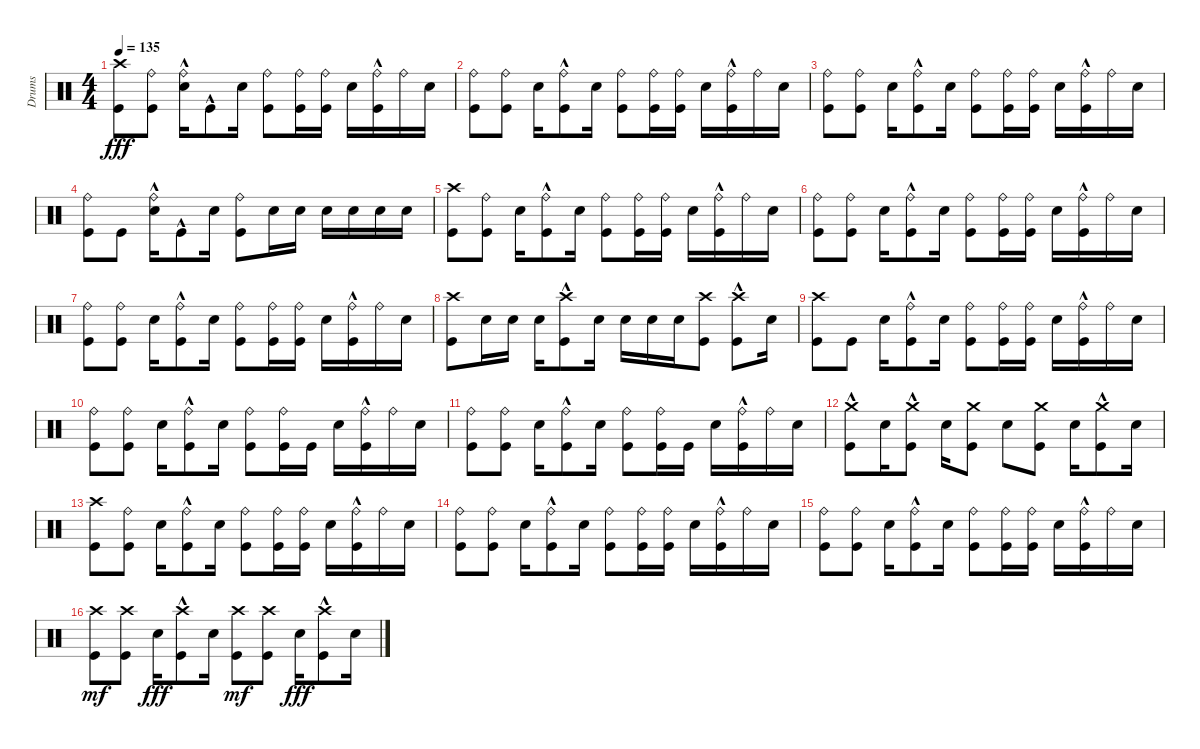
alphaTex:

\track ("Drums" "Drums") {instrument percussion}
\staff {score}
\articulation defaults
\ts (4 4)
\tempo 135
\clef neutral
\ks c
("Kick (hit)" "Crash high (hit)").8{dy fff} ("Kick (hit)" "Ride (bell)").8 ("Electric Snare (hit)"{hac} "Ride (bell)"{hac}).16 "Kick (hit)"{hac}.8 "Electric Snare (hit)".16 ("Ride (bell)" "Kick (hit)").8 ("Ride (bell)" "Kick (hit)").16 ("Ride (bell)" "Kick (hit)").16 "Electric Snare (hit)".16 ("Ride (bell)" "Kick (hit)"{hac}).16 "Ride (bell)".16 "Electric Snare (hit)".16 |
("Ride (bell)" "Kick (hit)").8 ("Ride (bell)" "Kick (hit)").8 "Electric Snare (hit)".16 ("Ride (bell)" "Kick (hit)"{hac}).8 "Electric Snare (hit)".16 ("Ride (bell)" "Kick (hit)").8 ("Ride (bell)" "Kick (hit)").16 ("Ride (bell)" "Kick (hit)").16 "Electric Snare (hit)".16 ("Kick (hit)"{hac} "Ride (bell)").16 "Ride (bell)".16 "Electric Snare (hit)".16 |
("Ride (bell)" "Kick (hit)").8 ("Ride (bell)" "Kick (hit)").8 "Electric Snare (hit)".16 ("Ride (bell)" "Kick (hit)"{hac}).8 "Electric Snare (hit)".16 ("Ride (bell)" "Kick (hit)").8 ("Ride (bell)" "Kick (hit)").16 ("Ride (bell)" "Kick (hit)").16 "Electric Snare (hit)".16 ("Kick (hit)"{hac} "Ride (bell)").16 "Ride (bell)".16 "Electric Snare (hit)".16 |
("Kick (hit)" "Ride (bell)").8 "Kick (hit)".8 ("Ride (bell)"{hac} "Electric Snare (hit)"{hac}).16 "Kick (hit)"{hac}.8 "Electric Snare (hit)".16 ("Kick (hit)" "Ride (bell)").8 "Electric Snare (hit)".16 "Electric Snare (hit)".16 "Electric Snare (hit)".16 "Electric Snare (hit)".16 "Electric Snare (hit)".16 "Electric Snare (hit)".16 |
("Crash high (hit)" "Kick (hit)").8 ("Ride (bell)" "Kick (hit)").8 "Electric Snare (hit)".16 ("Ride (bell)" "Kick (hit)"{hac}).8 "Electric Snare (hit)".16 ("Ride (bell)" "Kick (hit)").8 ("Ride (bell)" "Kick (hit)").16 ("Ride (bell)" "Kick (hit)").16 "Electric Snare (hit)".16 ("Kick (hit)"{hac} "Ride (bell)").16 "Ride (bell)".16 "Electric Snare (hit)".16 |
("Ride (bell)" "Kick (hit)").8 ("Ride (bell)" "Kick (hit)").8 "Electric Snare (hit)".16 ("Ride (bell)" "Kick (hit)"{hac}).8 "Electric Snare (hit)".16 ("Ride (bell)" "Kick (hit)").8 ("Ride (bell)" "Kick (hit)").16 ("Ride (bell)" "Kick (hit)").16 "Electric Snare (hit)".16 ("Kick (hit)"{hac} "Ride (bell)").16 "Ride (bell)".16 "Electric Snare (hit)".16 |
("Ride (bell)" "Kick (hit)").8 ("Ride (bell)" "Kick (hit)").8 "Electric Snare (hit)".16 ("Ride (bell)" "Kick (hit)"{hac}).8 "Electric Snare (hit)".16 ("Ride (bell)" "Kick (hit)").8 ("Ride (bell)" "Kick (hit)").16 ("Ride (bell)" "Kick (hit)").16 "Electric Snare (hit)".16 ("Kick (hit)"{hac} "Ride (bell)").16 "Ride (bell)".16 "Electric Snare (hit)".16 |
("Kick (hit)" "Crash high (hit)").8 "Electric Snare (hit)".16 "Electric Snare (hit)".16 "Electric Snare (hit)".16 ("Kick (hit)"{hac} "Crash high (hit)").8 "Electric Snare (hit)".16 "Electric Snare (hit)".16 "Electric Snare (hit)".16 "Electric Snare (hit)".16 ("Kick (hit)" "Crash high (hit)").8 ("Crash high (hit)" "Kick (hit)"{hac}).8 "Electric Snare (hit)".16 |
("Crash high (hit)" "Kick (hit)").8 "Kick (hit)".8 "Electric Snare (hit)".16 ("Ride (bell)" "Kick (hit)"{hac}).8 "Electric Snare (hit)".16 ("Ride (bell)" "Kick (hit)").8 ("Ride (bell)" "Kick (hit)").16 ("Ride (bell)" "Kick (hit)").16 "Electric Snare (hit)".16 ("Kick (hit)"{hac} "Ride (bell)").16 "Ride (bell)".16 "Electric Snare (hit)".16 |
("Ride (bell)" "Kick (hit)").8 ("Ride (bell)" "Kick (hit)").8 "Electric Snare (hit)".16 ("Ride (bell)" "Kick (hit)"{hac}).8 "Electric Snare (hit)".16 ("Ride (bell)" "Kick (hit)").8 ("Ride (bell)" "Kick (hit)").16 "Kick (hit)".16 "Electric Snare (hit)".16 ("Kick (hit)"{hac} "Ride (bell)").16 "Ride (bell)".16 "Electric Snare (hit)".16 |
("Ride (bell)" "Kick (hit)").8 ("Ride (bell)" "Kick (hit)").8 "Electric Snare (hit)".16 ("Ride (bell)" "Kick (hit)"{hac}).8 "Electric Snare (hit)".16 ("Ride (bell)" "Kick (hit)").8 ("Ride (bell)" "Kick (hit)").16 "Kick (hit)".16 "Electric Snare (hit)".16 ("Kick (hit)"{hac} "Ride (bell)").16 "Ride (bell)".16 "Electric Snare (hit)".16 |
("Kick (hit)"{hac} "Crash medium (hit)").8 "Electric Snare (hit)".16 ("Crash medium (hit)" "Kick (hit)"{hac}).8 "Electric Snare (hit)".16 ("Crash medium (hit)" "Kick (hit)").8 "Electric Snare (hit)".8 ("Kick (hit)" "Crash medium (hit)").8 "Electric Snare (hit)".16 ("Kick (hit)"{hac} "Crash medium (hit)").8 "Electric Snare (hit)".16 |
("Crash high (hit)" "Kick (hit)").8 ("Ride (bell)" "Kick (hit)").8 "Electric Snare (hit)".16 ("Ride (bell)" "Kick (hit)"{hac}).8 "Electric Snare (hit)".16 ("Ride (bell)" "Kick (hit)").8 ("Ride (bell)" "Kick (hit)").16 ("Ride (bell)" "Kick (hit)").16 "Electric Snare (hit)".16 ("Kick (hit)"{hac} "Ride (bell)").16 "Ride (bell)".16 "Electric Snare (hit)".16 |
("Ride (bell)" "Kick (hit)").8 ("Ride (bell)" "Kick (hit)").8 "Electric Snare (hit)".16 ("Ride (bell)" "Kick (hit)"{hac}).8 "Electric Snare (hit)".16 ("Ride (bell)" "Kick (hit)").8 ("Ride (bell)" "Kick (hit)").16 ("Ride (bell)" "Kick (hit)").16 "Electric Snare (hit)".16 ("Kick (hit)"{hac} "Ride (bell)").16 "Ride (bell)".16 "Electric Snare (hit)".16 |
("Ride (bell)" "Kick (hit)").8 ("Ride (bell)" "Kick (hit)").8 "Electric Snare (hit)".16 ("Ride (bell)" "Kick (hit)"{hac}).8 "Electric Snare (hit)".16 ("Ride (bell)" "Kick (hit)").8 ("Ride (bell)" "Kick (hit)").16 ("Ride (bell)" "Kick (hit)").16 "Electric Snare (hit)".16 ("Kick (hit)"{hac} "Ride (bell)").16 "Ride (bell)".16 "Electric Snare (hit)".16 |
("Kick (hit)" "Crash high (hit)").8{dy mf} ("Kick (hit)" "Crash high (hit)").8 "Electric Snare (hit)".16{dy fff} ("Crash high (hit)" "Kick (hit)"{hac}).8 "Electric Snare (hit)".16 ("Kick (hit)" "Crash high (hit)").8{dy mf} ("Kick (hit)" "Crash high (hit)").8 "Electric Snare (hit)".16{dy fff} ("Crash high (hit)" "Kick (hit)"{hac}).8 "Electric Snare (hit)".16
